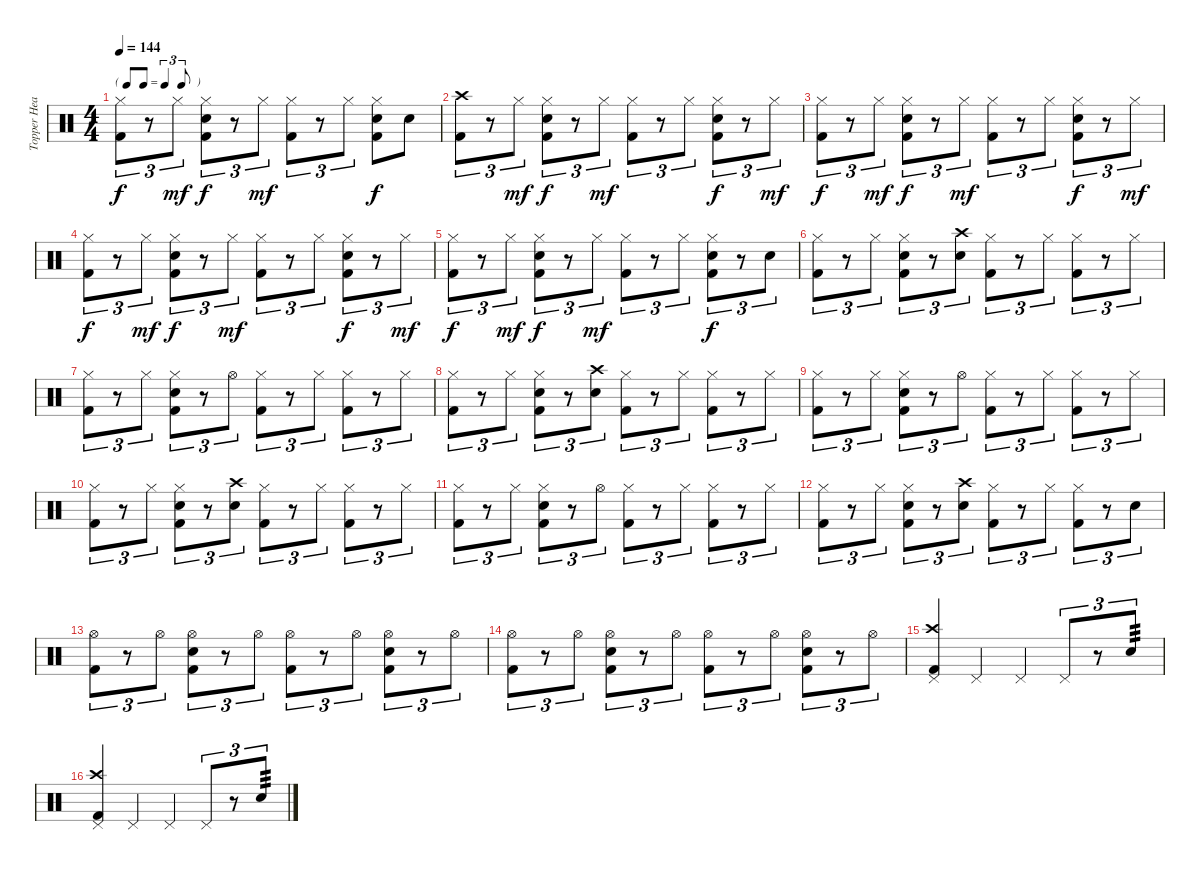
\track ("Topper Headon" "Topper Hea") {instrument percussion}
\staff {score}
\articulation defaults
\ts (4 4)
\tf triplet8th
\tempo 144
\clef neutral
\ks c
("Hi-Hat (closed)" "Kick (hit) 2").8{tu (3 2) dy f} r.8{tu (3 2)} "Hi-Hat (closed)".8{tu (3 2) dy mf} ("Hi-Hat (closed)" "Snare (hit) 2" "Kick (hit) 2").8{tu (3 2) dy f} r.8{tu (3 2)} "Hi-Hat (closed)".8{tu (3 2) dy mf} ("Hi-Hat (closed)" "Kick (hit) 2").8{tu (3 2)} r.8{tu (3 2)} "Hi-Hat (closed)".8{tu (3 2)} ("Hi-Hat (closed)" "Snare (hit) 2" "Kick (hit) 2").8{dy f} "Snare (hit) 2".8 |
("Crash high (hit)" "Kick (hit) 2").8{tu (3 2)} r.8{tu (3 2)} "Hi-Hat (closed)".8{tu (3 2) dy mf} ("Hi-Hat (closed)" "Snare (hit) 2" "Kick (hit) 2").8{tu (3 2) dy f} r.8{tu (3 2)} "Hi-Hat (closed)".8{tu (3 2) dy mf} ("Hi-Hat (closed)" "Kick (hit) 2").8{tu (3 2)} r.8{tu (3 2)} "Hi-Hat (closed)".8{tu (3 2)} ("Hi-Hat (closed)" "Snare (hit) 2" "Kick (hit) 2").8{tu (3 2) dy f} r.8{tu (3 2)} "Hi-Hat (closed)".8{tu (3 2) dy mf} |
("Hi-Hat (closed)" "Kick (hit) 2").8{tu (3 2) dy f} r.8{tu (3 2)} "Hi-Hat (closed)".8{tu (3 2) dy mf} ("Hi-Hat (closed)" "Snare (hit) 2" "Kick (hit) 2").8{tu (3 2) dy f} r.8{tu (3 2)} "Hi-Hat (closed)".8{tu (3 2) dy mf} ("Hi-Hat (closed)" "Kick (hit) 2").8{tu (3 2)} r.8{tu (3 2)} "Hi-Hat (closed)".8{tu (3 2)} ("Hi-Hat (closed)" "Snare (hit) 2" "Kick (hit) 2").8{tu (3 2) dy f} r.8{tu (3 2)} "Hi-Hat (closed)".8{tu (3 2) dy mf} |
("Hi-Hat (closed)" "Kick (hit) 2").8{tu (3 2) dy f} r.8{tu (3 2)} "Hi-Hat (closed)".8{tu (3 2) dy mf} ("Hi-Hat (closed)" "Snare (hit) 2" "Kick (hit) 2").8{tu (3 2) dy f} r.8{tu (3 2)} "Hi-Hat (closed)".8{tu (3 2) dy mf} ("Hi-Hat (closed)" "Kick (hit) 2").8{tu (3 2)} r.8{tu (3 2)} "Hi-Hat (closed)".8{tu (3 2)} ("Hi-Hat (closed)" "Snare (hit) 2" "Kick (hit) 2").8{tu (3 2) dy f} r.8{tu (3 2)} "Hi-Hat (closed)".8{tu (3 2) dy mf} |
("Hi-Hat (closed)" "Kick (hit) 2").8{tu (3 2) dy f} r.8{tu (3 2)} "Hi-Hat (closed)".8{tu (3 2) dy mf} ("Hi-Hat (closed)" "Snare (hit) 2" "Kick (hit) 2").8{tu (3 2) dy f} r.8{tu (3 2)} "Hi-Hat (closed)".8{tu (3 2) dy mf} ("Hi-Hat (closed)" "Kick (hit) 2").8{tu (3 2)} r.8{tu (3 2)} "Hi-Hat (closed)".8{tu (3 2)} ("Hi-Hat (closed)" "Snare (hit) 2" "Kick (hit) 2").8{tu (3 2) dy f} r.8{tu (3 2)} "Snare (hit) 2".8{tu (3 2)} |
("Hi-Hat (closed)" "Kick (hit) 2").8{tu (3 2)} r.8{tu (3 2)} "Hi-Hat (closed)".8{tu (3 2)} ("Hi-Hat (closed)" "Snare (hit) 2" "Kick (hit) 2").8{tu (3 2)} r.8{tu (3 2)} ("Crash high (hit)" "Snare (hit) 2").8{tu (3 2)} ("Hi-Hat (closed)" "Kick (hit) 2").8{tu (3 2)} r.8{tu (3 2)} "Hi-Hat (closed)".8{tu (3 2)} ("Hi-Hat (closed)" "Kick (hit) 2").8{tu (3 2)} r.8{tu (3 2)} "Hi-Hat (closed)".8{tu (3 2)} |
("Hi-Hat (closed)" "Kick (hit) 2").8{tu (3 2)} r.8{tu (3 2)} "Hi-Hat (closed)".8{tu (3 2)} ("Hi-Hat (closed)" "Snare (hit) 2" "Kick (hit) 2").8{tu (3 2)} r.8{tu (3 2)} "Hi-Hat (open)".8{tu (3 2)} ("Hi-Hat (closed)" "Kick (hit) 2").8{tu (3 2)} r.8{tu (3 2)} "Hi-Hat (closed)".8{tu (3 2)} ("Hi-Hat (closed)" "Kick (hit) 2").8{tu (3 2)} r.8{tu (3 2)} "Hi-Hat (closed)".8{tu (3 2)} |
("Hi-Hat (closed)" "Kick (hit) 2").8{tu (3 2)} r.8{tu (3 2)} "Hi-Hat (closed)".8{tu (3 2)} ("Hi-Hat (closed)" "Snare (hit) 2" "Kick (hit) 2").8{tu (3 2)} r.8{tu (3 2)} ("Crash high (hit)" "Snare (hit) 2").8{tu (3 2)} ("Hi-Hat (closed)" "Kick (hit) 2").8{tu (3 2)} r.8{tu (3 2)} "Hi-Hat (closed)".8{tu (3 2)} ("Hi-Hat (closed)" "Kick (hit) 2").8{tu (3 2)} r.8{tu (3 2)} "Hi-Hat (closed)".8{tu (3 2)} |
("Hi-Hat (closed)" "Kick (hit) 2").8{tu (3 2)} r.8{tu (3 2)} "Hi-Hat (closed)".8{tu (3 2)} ("Hi-Hat (closed)" "Snare (hit) 2" "Kick (hit) 2").8{tu (3 2)} r.8{tu (3 2)} "Hi-Hat (open)".8{tu (3 2)} ("Hi-Hat (closed)" "Kick (hit) 2").8{tu (3 2)} r.8{tu (3 2)} "Hi-Hat (closed)".8{tu (3 2)} ("Hi-Hat (closed)" "Kick (hit) 2").8{tu (3 2)} r.8{tu (3 2)} "Hi-Hat (closed)".8{tu (3 2)} |
("Hi-Hat (closed)" "Kick (hit) 2").8{tu (3 2)} r.8{tu (3 2)} "Hi-Hat (closed)".8{tu (3 2)} ("Hi-Hat (closed)" "Snare (hit) 2" "Kick (hit) 2").8{tu (3 2)} r.8{tu (3 2)} ("Crash high (hit)" "Snare (hit) 2").8{tu (3 2)} ("Hi-Hat (closed)" "Kick (hit) 2").8{tu (3 2)} r.8{tu (3 2)} "Hi-Hat (closed)".8{tu (3 2)} ("Hi-Hat (closed)" "Kick (hit) 2").8{tu (3 2)} r.8{tu (3 2)} "Hi-Hat (closed)".8{tu (3 2)} |
("Hi-Hat (closed)" "Kick (hit) 2").8{tu (3 2)} r.8{tu (3 2)} "Hi-Hat (closed)".8{tu (3 2)} ("Hi-Hat (closed)" "Snare (hit) 2" "Kick (hit) 2").8{tu (3 2)} r.8{tu (3 2)} "Hi-Hat (open)".8{tu (3 2)} ("Hi-Hat (closed)" "Kick (hit) 2").8{tu (3 2)} r.8{tu (3 2)} "Hi-Hat (closed)".8{tu (3 2)} ("Hi-Hat (closed)" "Kick (hit) 2").8{tu (3 2)} r.8{tu (3 2)} "Hi-Hat (closed)".8{tu (3 2)} |
("Hi-Hat (closed)" "Kick (hit) 2").8{tu (3 2)} r.8{tu (3 2)} "Hi-Hat (closed)".8{tu (3 2)} ("Hi-Hat (closed)" "Snare (hit) 2" "Kick (hit) 2").8{tu (3 2)} r.8{tu (3 2)} ("Crash high (hit)" "Snare (hit) 2").8{tu (3 2)} ("Hi-Hat (closed)" "Kick (hit) 2").8{tu (3 2)} r.8{tu (3 2)} "Hi-Hat (closed)".8{tu (3 2)} ("Hi-Hat (closed)" "Kick (hit) 2").8{tu (3 2)} r.8{tu (3 2)} "Snare (hit) 2".8{tu (3 2)} |
("Hi-Hat (open)" "Kick (hit) 2").8{tu (3 2)} r.8{tu (3 2)} "Hi-Hat (open)".8{tu (3 2)} ("Hi-Hat (open)" "Snare (hit) 2" "Kick (hit) 2").8{tu (3 2)} r.8{tu (3 2)} "Hi-Hat (open)".8{tu (3 2)} ("Hi-Hat (open)" "Kick (hit) 2").8{tu (3 2)} r.8{tu (3 2)} "Hi-Hat (open)".8{tu (3 2)} ("Hi-Hat (open)" "Snare (hit) 2" "Kick (hit) 2").8{tu (3 2)} r.8{tu (3 2)} "Hi-Hat (open)".8{tu (3 2)} |
("Hi-Hat (open)" "Kick (hit) 2").8{tu (3 2)} r.8{tu (3 2)} "Hi-Hat (open)".8{tu (3 2)} ("Hi-Hat (open)" "Snare (hit) 2" "Kick (hit) 2").8{tu (3 2)} r.8{tu (3 2)} "Hi-Hat (open)".8{tu (3 2)} ("Hi-Hat (open)" "Kick (hit) 2").8{tu (3 2)} r.8{tu (3 2)} "Hi-Hat (open)".8{tu (3 2)} ("Hi-Hat (open)" "Snare (hit) 2" "Kick (hit) 2").8{tu (3 2)} r.8{tu (3 2)} "Hi-Hat (open)".8{tu (3 2)} |
("Crash high (hit)" "Pedal Hi-Hat (hit)" "Kick (hit) 2").4 "Pedal Hi-Hat (hit)".4 "Pedal Hi-Hat (hit)".4 "Pedal Hi-Hat (hit)".8{tu (3 2)} r.8{tu (3 2)} "Snare (hit) 2".8{tu (3 2) tp 3} |
("Crash high (hit)" "Pedal Hi-Hat (hit)" "Kick (hit) 2").4 "Pedal Hi-Hat (hit)".4 "Pedal Hi-Hat (hit)".4 "Pedal Hi-Hat (hit)".8{tu (3 2)} r.8{tu (3 2)} "Snare (hit) 2".8{tu (3 2) tp 3}
